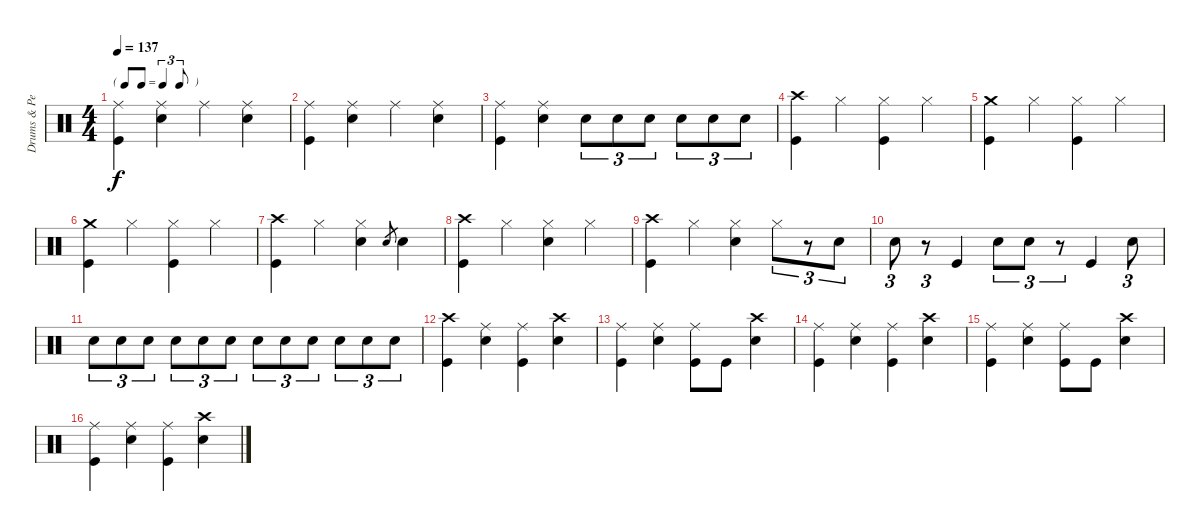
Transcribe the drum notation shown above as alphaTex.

\track ("Drums & Percussion (Matt)" "Drums & Pe") {instrument percussion}
\staff {score}
\articulation defaults
\ts (4 4)
\tf triplet8th
\tempo 137
\clef neutral
\ks c
("Ride (middle)" "Kick (hit)").4{dy f} ("Ride (middle)" "Electric Snare (hit)").4 "Ride (middle)".4 ("Ride (middle)" "Electric Snare (hit)").4 |
("Ride (middle)" "Kick (hit)").4 ("Ride (middle)" "Electric Snare (hit)").4 "Ride (middle)".4 ("Ride (middle)" "Electric Snare (hit)").4 |
("Ride (middle)" "Kick (hit)").4 ("Ride (middle)" "Electric Snare (hit)").4 "Electric Snare (hit)".8{tu (3 2)} "Electric Snare (hit)".8{tu (3 2)} "Electric Snare (hit)".8{tu (3 2)} "Electric Snare (hit)".8{tu (3 2)} "Electric Snare (hit)".8{tu (3 2)} "Electric Snare (hit)".8{tu (3 2)} |
("Crash high (hit)" "Kick (hit)").4 "Hi-Hat (closed)".4 ("Hi-Hat (closed)" "Kick (hit)").4 "Hi-Hat (closed)".4 |
("Crash medium (hit)" "Kick (hit)").4 "Hi-Hat (closed)".4 ("Hi-Hat (closed)" "Kick (hit)").4 "Hi-Hat (closed)".4 |
("Crash medium (hit)" "Kick (hit)").4 "Hi-Hat (closed)".4 ("Hi-Hat (closed)" "Kick (hit)").4 "Hi-Hat (closed)".4 |
("Crash high (hit)" "Kick (hit)").4 "Hi-Hat (closed)".4 ("Hi-Hat (closed)" "Electric Snare (hit)").4 "Electric Snare (hit)".8{gr} "Electric Snare (hit)".4 |
("Crash high (hit)" "Kick (hit)").4 "Hi-Hat (closed)".4 ("Hi-Hat (closed)" "Electric Snare (hit)").4 "Hi-Hat (closed)".4 |
("Crash high (hit)" "Kick (hit)").4 "Hi-Hat (closed)".4 ("Hi-Hat (closed)" "Electric Snare (hit)").4 "Hi-Hat (closed)".8{tu (3 2)} r.8{tu (3 2)} "Electric Snare (hit)".8{tu (3 2)} |
"Electric Snare (hit)".8{tu (3 2)} r.8{tu (3 2)} "Kick (hit)".4 "Electric Snare (hit)".8{tu (3 2)} "Electric Snare (hit)".8{tu (3 2)} r.8{tu (3 2)} "Kick (hit)".4 "Electric Snare (hit)".8{tu (3 2)} |
"Electric Snare (hit)".8{tu (3 2)} "Electric Snare (hit)".8{tu (3 2)} "Electric Snare (hit)".8{tu (3 2)} "Electric Snare (hit)".8{tu (3 2)} "Electric Snare (hit)".8{tu (3 2)} "Electric Snare (hit)".8{tu (3 2)} "Electric Snare (hit)".8{tu (3 2)} "Electric Snare (hit)".8{tu (3 2)} "Electric Snare (hit)".8{tu (3 2)} "Electric Snare (hit)".8{tu (3 2)} "Electric Snare (hit)".8{tu (3 2)} "Electric Snare (hit)".8{tu (3 2)} |
("Crash high (hit)" "Kick (hit)").4 ("Ride (middle)" "Electric Snare (hit)").4 ("Ride (middle)" "Kick (hit)").4 ("Crash high (hit)" "Electric Snare (hit)").4 |
("Ride (middle)" "Kick (hit)").4 ("Ride (middle)" "Electric Snare (hit)").4 ("Ride (middle)" "Kick (hit)").8 "Kick (hit)".8 ("Crash high (hit)" "Electric Snare (hit)").4 |
("Ride (middle)" "Kick (hit)").4 ("Ride (middle)" "Electric Snare (hit)").4 ("Ride (middle)" "Kick (hit)").4 ("Crash high (hit)" "Electric Snare (hit)").4 |
("Ride (middle)" "Kick (hit)").4 ("Ride (middle)" "Electric Snare (hit)").4 ("Ride (middle)" "Kick (hit)").8 "Kick (hit)".8 ("Crash high (hit)" "Electric Snare (hit)").4 |
("Ride (middle)" "Kick (hit)").4 ("Ride (middle)" "Electric Snare (hit)").4 ("Ride (middle)" "Kick (hit)").4 ("Crash high (hit)" "Electric Snare (hit)").4
